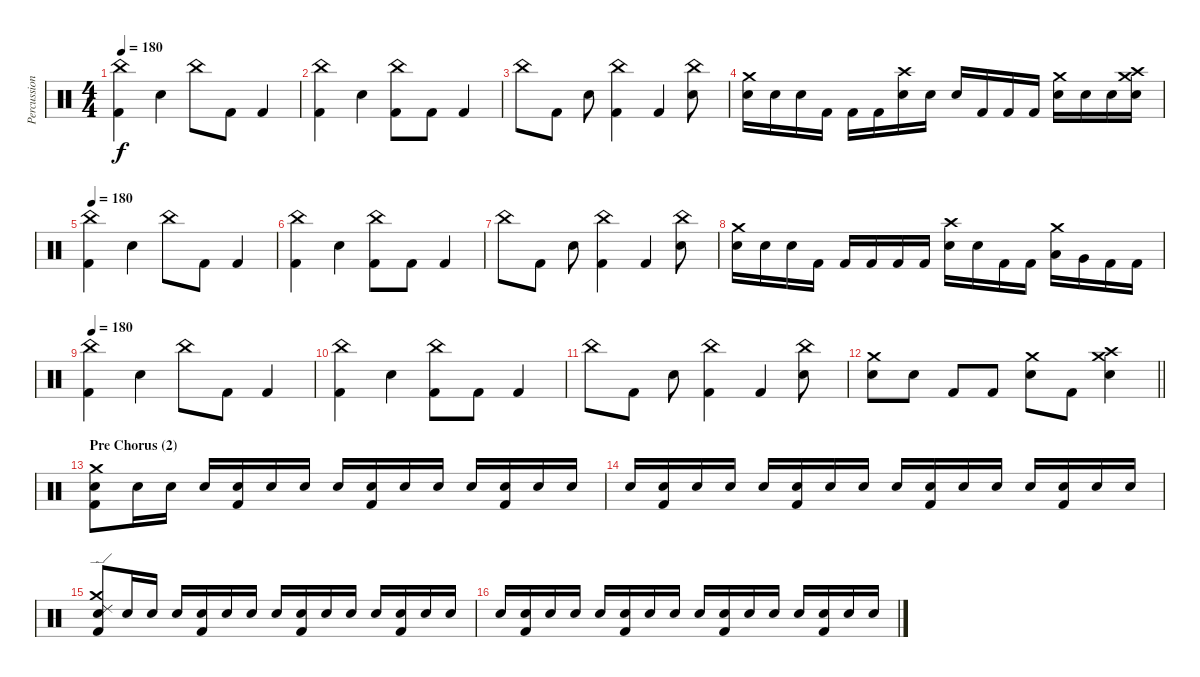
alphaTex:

\track ("Percussion" "Percussion") {instrument percussion}
\staff {score}
\articulation defaults
\ts (4 4)
\tempo 180
\clef neutral
\ks c
("China (hit)" "Kick (hit) 2").4{dy f} "Electric Snare (hit)".4 "China (hit)".8 "Kick (hit) 2".8 "Kick (hit) 2".4 |
("China (hit)" "Kick (hit) 2").4 "Electric Snare (hit)".4 ("China (hit)" "Kick (hit) 2").8 "Kick (hit) 2".8 "Kick (hit) 2".4 |
"China (hit)".8 "Kick (hit) 2".8 "Electric Snare (hit)".8 ("China (hit)" "Kick (hit) 2").4 "Kick (hit) 2".4 ("China (hit)" "Electric Snare (hit)").8 |
("Crash medium (hit)" "Electric Snare (hit)").16 "Electric Snare (hit)".16 "Electric Snare (hit)".16 "Kick (hit) 2".16 "Kick (hit) 2".16 "Kick (hit) 2".16 ("Crash high (hit)" "Electric Snare (hit)").16 "Electric Snare (hit)".16 "Electric Snare (hit)".16 "Kick (hit) 2".16 "Kick (hit) 2".16 "Kick (hit) 2".16 ("Crash medium (hit)" "Electric Snare (hit)").16 "Electric Snare (hit)".16 "Electric Snare (hit)".16 ("Crash high (hit)" "Crash medium (hit)" "Electric Snare (hit)").16 |
\tempo 180
("China (hit)" "Kick (hit) 2").4 "Electric Snare (hit)".4 "China (hit)".8 "Kick (hit) 2".8 "Kick (hit) 2".4 |
("China (hit)" "Kick (hit) 2").4 "Electric Snare (hit)".4 ("China (hit)" "Kick (hit) 2").8 "Kick (hit) 2".8 "Kick (hit) 2".4 |
"China (hit)".8 "Kick (hit) 2".8 "Electric Snare (hit)".8 ("China (hit)" "Kick (hit) 2").4 "Kick (hit) 2".4 ("China (hit)" "Electric Snare (hit)").8 |
("Crash medium (hit)" "Electric Snare (hit)").16 "Electric Snare (hit)".16 "Electric Snare (hit)".16 "Kick (hit) 2".16 "Kick (hit) 2".16 "Kick (hit) 2".16 "Kick (hit) 2".16 "Kick (hit) 2".16 ("Crash high (hit)" "Electric Snare (hit)").16 "Electric Snare (hit)".16 "Kick (hit) 2".16 "Kick (hit) 2".16 ("Crash medium (hit)" "Low Tom (hit)").16 "Very Low Tom (hit)".16 "Kick (hit) 2".16 "Kick (hit) 2".16 |
\tempo 180
("China (hit)" "Kick (hit) 2").4 "Electric Snare (hit)".4 "China (hit)".8 "Kick (hit) 2".8 "Kick (hit) 2".4 |
("China (hit)" "Kick (hit) 2").4 "Electric Snare (hit)".4 ("China (hit)" "Kick (hit) 2").8 "Kick (hit) 2".8 "Kick (hit) 2".4 |
"China (hit)".8 "Kick (hit) 2".8 "Electric Snare (hit)".8 ("China (hit)" "Kick (hit) 2").4 "Kick (hit) 2".4 ("China (hit)" "Electric Snare (hit)").8 |
\barLineRight lightlight
("Crash medium (hit)" "Electric Snare (hit)").8 "Electric Snare (hit)".8 "Kick (hit) 2".8 "Kick (hit) 2".8 ("Crash medium (hit)" "Electric Snare (hit)").8 "Kick (hit) 2".8 ("Crash high (hit)" "Crash medium (hit)" "Electric Snare (hit)").4 |
\section ("" "Pre Chorus (2)")
("Crash medium (hit)" "Electric Snare (hit)" "Kick (hit) 2").8 "Electric Snare (hit)".16 "Electric Snare (hit)".16 "Electric Snare (hit)".16 ("Electric Snare (hit)" "Kick (hit) 2").16 "Electric Snare (hit)".16 "Electric Snare (hit)".16 "Electric Snare (hit)".16 ("Electric Snare (hit)" "Kick (hit) 2").16 "Electric Snare (hit)".16 "Electric Snare (hit)".16 "Electric Snare (hit)".16 ("Electric Snare (hit)" "Kick (hit) 2").16 "Electric Snare (hit)".16 "Electric Snare (hit)".16 |
"Electric Snare (hit)".16 ("Electric Snare (hit)" "Kick (hit) 2").16 "Electric Snare (hit)".16 "Electric Snare (hit)".16 "Electric Snare (hit)".16 ("Electric Snare (hit)" "Kick (hit) 2").16 "Electric Snare (hit)".16 "Electric Snare (hit)".16 "Electric Snare (hit)".16 ("Electric Snare (hit)" "Kick (hit) 2").16 "Electric Snare (hit)".16 "Electric Snare (hit)".16 "Electric Snare (hit)".16 ("Electric Snare (hit)" "Kick (hit) 2").16 "Electric Snare (hit)".16 "Electric Snare (hit)".16 |
("Ride (edge) 2" "Crash medium (hit)" "Electric Snare (hit)" "Kick (hit) 2").8 "Electric Snare (hit)".16 "Electric Snare (hit)".16 "Electric Snare (hit)".16 ("Electric Snare (hit)" "Kick (hit) 2").16 "Electric Snare (hit)".16 "Electric Snare (hit)".16 "Electric Snare (hit)".16 ("Electric Snare (hit)" "Kick (hit) 2").16 "Electric Snare (hit)".16 "Electric Snare (hit)".16 "Electric Snare (hit)".16 ("Electric Snare (hit)" "Kick (hit) 2").16 "Electric Snare (hit)".16 "Electric Snare (hit)".16 |
"Electric Snare (hit)".16 ("Electric Snare (hit)" "Kick (hit) 2").16 "Electric Snare (hit)".16 "Electric Snare (hit)".16 "Electric Snare (hit)".16 ("Electric Snare (hit)" "Kick (hit) 2").16 "Electric Snare (hit)".16 "Electric Snare (hit)".16 "Electric Snare (hit)".16 ("Electric Snare (hit)" "Kick (hit) 2").16 "Electric Snare (hit)".16 "Electric Snare (hit)".16 "Electric Snare (hit)".16 ("Electric Snare (hit)" "Kick (hit) 2").16 "Electric Snare (hit)".16 "Electric Snare (hit)".16
